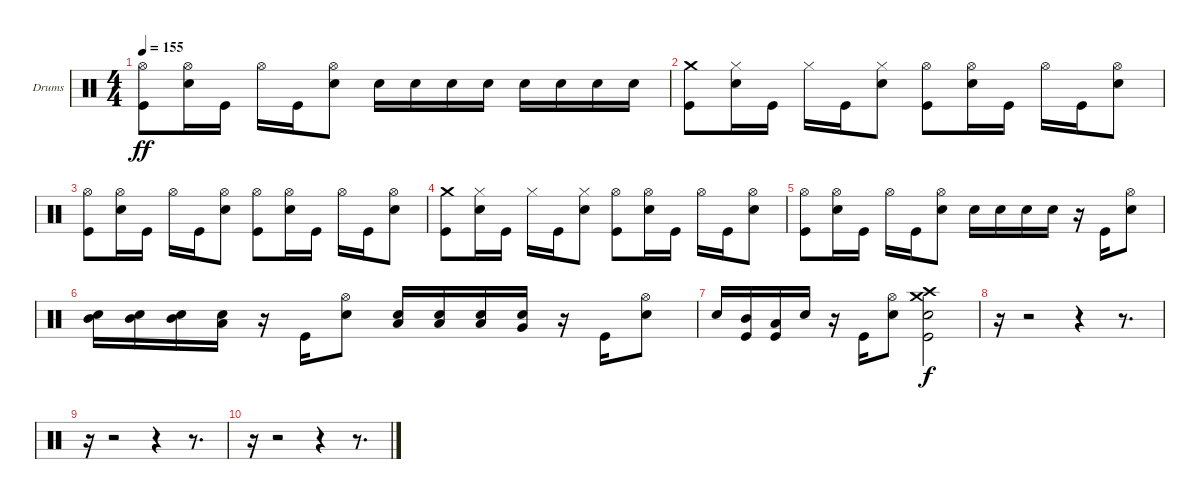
\defaultSystemsLayout 4
\bracketExtendMode groupsimilarinstruments
\firstSystemTrackNameOrientation horizontal
\otherSystemsTrackNameOrientation horizontal
\track ("Drums - Brandon Barnes" "Drums") {instrument percussion}
\staff {score}
\articulation defaults
\ts (4 4)
\tempo 155
\clef neutral
\scale
0.333333
\ks c
("Kick (hit)" "Hi-Hat (open)").8{dy ff} ("Snare (hit) 2" "Hi-Hat (open)").16 "Kick (hit)".16 "Hi-Hat (open)".16 "Kick (hit)".16 ("Snare (hit) 2" "Hi-Hat (open)").8 "Snare (hit) 2".16 "Snare (hit) 2".16 "Snare (hit) 2".16 "Snare (hit) 2".16 "Snare (hit) 2".16 "Snare (hit) 2".16 "Snare (hit) 2".16 "Snare (hit) 2".16 |
\scale
0.333333 ("Kick (hit)" "Crash medium (hit)").8 ("Snare (hit) 2" "Hi-Hat (closed)").16 "Kick (hit)".16 "Hi-Hat (closed)".16 "Kick (hit)".16 ("Snare (hit) 2" "Hi-Hat (closed)").8 ("Kick (hit)" "Hi-Hat (open)").8 ("Snare (hit) 2" "Hi-Hat (open)").16 "Kick (hit)".16 "Hi-Hat (open)".16 "Kick (hit)".16 ("Snare (hit) 2" "Hi-Hat (open)").8 |
\scale
0.333333 ("Kick (hit)" "Hi-Hat (open)").8 ("Snare (hit) 2" "Hi-Hat (open)").16 "Kick (hit)".16 "Hi-Hat (open)".16 "Kick (hit)".16 ("Snare (hit) 2" "Hi-Hat (open)").8 ("Kick (hit)" "Hi-Hat (open)").8 ("Snare (hit) 2" "Hi-Hat (open)").16 "Kick (hit)".16 "Hi-Hat (open)".16 "Kick (hit)".16 ("Snare (hit) 2" "Hi-Hat (open)").8 |
\scale
0.333333 ("Kick (hit)" "Crash medium (hit)").8 ("Snare (hit) 2" "Hi-Hat (closed)").16 "Kick (hit)".16 "Hi-Hat (closed)".16 "Kick (hit)".16 ("Snare (hit) 2" "Hi-Hat (closed)").8 ("Kick (hit)" "Hi-Hat (open)").8 ("Snare (hit) 2" "Hi-Hat (open)").16 "Kick (hit)".16 "Hi-Hat (open)".16 "Kick (hit)".16 ("Snare (hit) 2" "Hi-Hat (open)").8 |
\scale
0.333333 ("Kick (hit)" "Hi-Hat (open)").8 ("Snare (hit) 2" "Hi-Hat (open)").16 "Kick (hit)".16 "Hi-Hat (open)".16 "Kick (hit)".16 ("Snare (hit) 2" "Hi-Hat (open)").8 "Snare (hit) 2".16 "Snare (hit) 2".16 "Snare (hit) 2".16 "Snare (hit) 2".16 r.16 "Kick (hit)".16 ("Snare (hit) 2" "Hi-Hat (open)").8 |
\scale
0.333333 ("Snare (hit) 2" "Mid Tom (hit)").16 ("Snare (hit) 2" "Mid Tom (hit)").16 ("Snare (hit) 2" "Mid Tom (hit)").16 ("Snare (hit) 2" "Low Tom (hit)").16 r.16 "Kick (hit)".16 ("Snare (hit) 2" "Hi-Hat (open)").8 ("Snare (hit) 2" "Low Tom (hit)").16 ("Snare (hit) 2" "Low Tom (hit)").16 ("Snare (hit) 2" "Low Tom (hit)").16 ("Snare (hit) 2" "Very Low Tom (hit)").16 r.16 "Kick (hit)".16 ("Snare (hit) 2" "Hi-Hat (open)").8 |
\scale
0.333333 "Snare (hit) 2".16 ("Mid Tom (hit)" "Kick (hit)").16 ("Low Tom (hit)" "Kick (hit)").16 "Snare (hit) 2".16 r.16 "Kick (hit)".16 ("Snare (hit) 2" "Hi-Hat (open)").8 ("Crash medium (hit)" "Snare (hit) 2" "Kick (hit)" "Crash high (hit)").2{dy f} |
\scale
0.333333 r.16 r.2 r.4 r.8{d} |
r.16 r.2 r.4 r.8{d} |
r.16 r.2 r.4 r.8{d}
